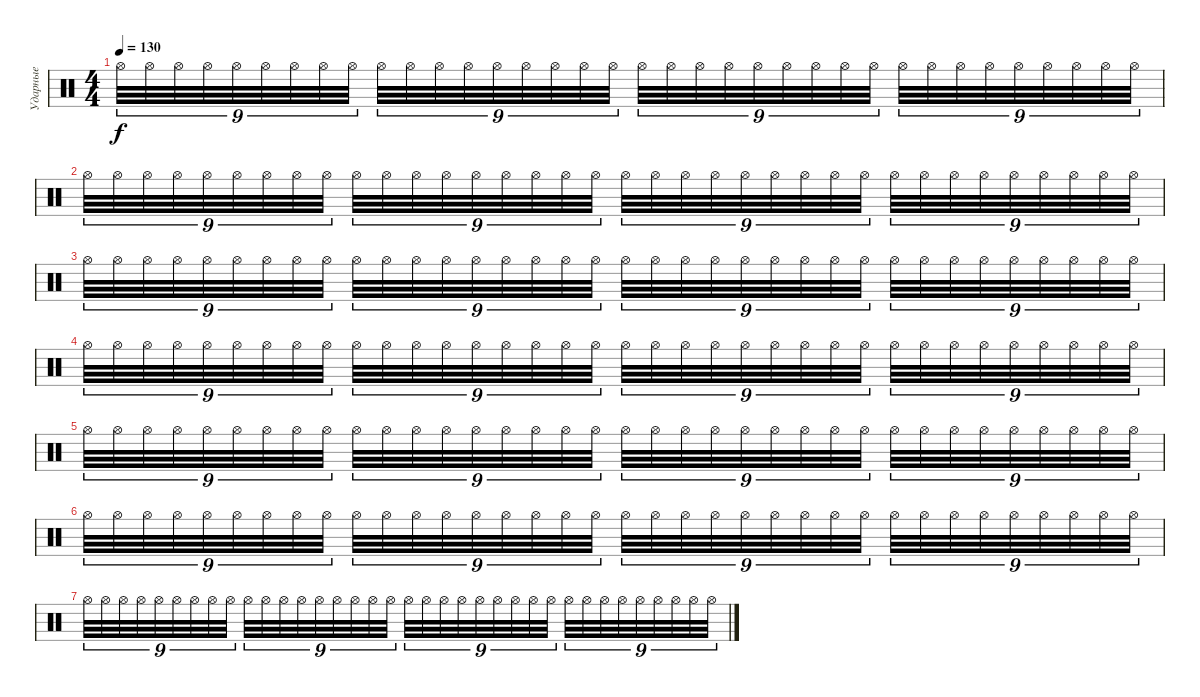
\track ("Ударные" "Ударные") {instrument percussion}
\staff {score}
\articulation defaults
\ts (4 4)
\tempo 130
\clef neutral
\ks c "Hi-Hat (open)".32{tu (9 8) dy f volume 7} "Hi-Hat (open)".32{tu (9 8)} "Hi-Hat (open)".32{tu (9 8)} "Hi-Hat (open)".32{tu (9 8)} "Hi-Hat (open)".32{tu (9 8)} "Hi-Hat (open)".32{tu (9 8)} "Hi-Hat (open)".32{tu (9 8)} "Hi-Hat (open)".32{tu (9 8)} "Hi-Hat (open)".32{tu (9 8)} "Hi-Hat (open)".32{tu (9 8)} "Hi-Hat (open)".32{tu (9 8)} "Hi-Hat (open)".32{tu (9 8)} "Hi-Hat (open)".32{tu (9 8)} "Hi-Hat (open)".32{tu (9 8)} "Hi-Hat (open)".32{tu (9 8)} "Hi-Hat (open)".32{tu (9 8)} "Hi-Hat (open)".32{tu (9 8)} "Hi-Hat (open)".32{tu (9 8)} "Hi-Hat (open)".32{tu (9 8) volume 3} "Hi-Hat (open)".32{tu (9 8)} "Hi-Hat (open)".32{tu (9 8)} "Hi-Hat (open)".32{tu (9 8)} "Hi-Hat (open)".32{tu (9 8)} "Hi-Hat (open)".32{tu (9 8)} "Hi-Hat (open)".32{tu (9 8)} "Hi-Hat (open)".32{tu (9 8)} "Hi-Hat (open)".32{tu (9 8)} "Hi-Hat (open)".32{tu (9 8)} "Hi-Hat (open)".32{tu (9 8)} "Hi-Hat (open)".32{tu (9 8)} "Hi-Hat (open)".32{tu (9 8)} "Hi-Hat (open)".32{tu (9 8)} "Hi-Hat (open)".32{tu (9 8)} "Hi-Hat (open)".32{tu (9 8)} "Hi-Hat (open)".32{tu (9 8)} "Hi-Hat (open)".32{tu (9 8)}
|
"Hi-Hat (open)".32{tu (9 8) volume 8} "Hi-Hat (open)".32{tu (9 8)} "Hi-Hat (open)".32{tu (9 8)} "Hi-Hat (open)".32{tu (9 8)} "Hi-Hat (open)".32{tu (9 8)} "Hi-Hat (open)".32{tu (9 8)} "Hi-Hat (open)".32{tu (9 8)} "Hi-Hat (open)".32{tu (9 8)} "Hi-Hat (open)".32{tu (9 8)} "Hi-Hat (open)".32{tu (9 8)} "Hi-Hat (open)".32{tu (9 8)} "Hi-Hat (open)".32{tu (9 8)} "Hi-Hat (open)".32{tu (9 8)} "Hi-Hat (open)".32{tu (9 8)} "Hi-Hat (open)".32{tu (9 8)} "Hi-Hat (open)".32{tu (9 8)} "Hi-Hat (open)".32{tu (9 8)} "Hi-Hat (open)".32{tu (9 8)} "Hi-Hat (open)".32{tu (9 8)} "Hi-Hat (open)".32{tu (9 8)} "Hi-Hat (open)".32{tu (9 8)} "Hi-Hat (open)".32{tu (9 8)} "Hi-Hat (open)".32{tu (9 8)} "Hi-Hat (open)".32{tu (9 8)} "Hi-Hat (open)".32{tu (9 8)} "Hi-Hat (open)".32{tu (9 8)} "Hi-Hat (open)".32{tu (9 8)} "Hi-Hat (open)".32{tu (9 8)} "Hi-Hat (open)".32{tu (9 8)} "Hi-Hat (open)".32{tu (9 8)} "Hi-Hat (open)".32{tu (9 8)} "Hi-Hat (open)".32{tu (9 8)} "Hi-Hat (open)".32{tu (9 8)} "Hi-Hat (open)".32{tu (9 8)} "Hi-Hat (open)".32{tu (9 8)} "Hi-Hat (open)".32{tu (9 8)} |
"Hi-Hat (open)".32{tu (9 8)} "Hi-Hat (open)".32{tu (9 8)} "Hi-Hat (open)".32{tu (9 8)} "Hi-Hat (open)".32{tu (9 8)} "Hi-Hat (open)".32{tu (9 8)} "Hi-Hat (open)".32{tu (9 8)} "Hi-Hat (open)".32{tu (9 8)} "Hi-Hat (open)".32{tu (9 8)} "Hi-Hat (open)".32{tu (9 8)} "Hi-Hat (open)".32{tu (9 8)} "Hi-Hat (open)".32{tu (9 8)} "Hi-Hat (open)".32{tu (9 8)} "Hi-Hat (open)".32{tu (9 8)} "Hi-Hat (open)".32{tu (9 8)} "Hi-Hat (open)".32{tu (9 8)} "Hi-Hat (open)".32{tu (9 8)} "Hi-Hat (open)".32{tu (9 8)} "Hi-Hat (open)".32{tu (9 8)} "Hi-Hat (open)".32{tu (9 8)} "Hi-Hat (open)".32{tu (9 8)} "Hi-Hat (open)".32{tu (9 8)} "Hi-Hat (open)".32{tu (9 8)} "Hi-Hat (open)".32{tu (9 8)} "Hi-Hat (open)".32{tu (9 8)} "Hi-Hat (open)".32{tu (9 8)} "Hi-Hat (open)".32{tu (9 8)} "Hi-Hat (open)".32{tu (9 8)} "Hi-Hat (open)".32{tu (9 8)} "Hi-Hat (open)".32{tu (9 8)} "Hi-Hat (open)".32{tu (9 8)} "Hi-Hat (open)".32{tu (9 8)} "Hi-Hat (open)".32{tu (9 8)} "Hi-Hat (open)".32{tu (9 8)} "Hi-Hat (open)".32{tu (9 8)} "Hi-Hat (open)".32{tu (9 8)} "Hi-Hat (open)".32{tu (9 8)} |
"Hi-Hat (open)".32{tu (9 8)} "Hi-Hat (open)".32{tu (9 8)} "Hi-Hat (open)".32{tu (9 8)} "Hi-Hat (open)".32{tu (9 8)} "Hi-Hat (open)".32{tu (9 8)} "Hi-Hat (open)".32{tu (9 8)} "Hi-Hat (open)".32{tu (9 8)} "Hi-Hat (open)".32{tu (9 8)} "Hi-Hat (open)".32{tu (9 8)} "Hi-Hat (open)".32{tu (9 8)} "Hi-Hat (open)".32{tu (9 8)} "Hi-Hat (open)".32{tu (9 8)} "Hi-Hat (open)".32{tu (9 8)} "Hi-Hat (open)".32{tu (9 8)} "Hi-Hat (open)".32{tu (9 8)} "Hi-Hat (open)".32{tu (9 8)} "Hi-Hat (open)".32{tu (9 8)} "Hi-Hat (open)".32{tu (9 8)} "Hi-Hat (open)".32{tu (9 8)} "Hi-Hat (open)".32{tu (9 8)} "Hi-Hat (open)".32{tu (9 8)} "Hi-Hat (open)".32{tu (9 8)} "Hi-Hat (open)".32{tu (9 8)} "Hi-Hat (open)".32{tu (9 8)} "Hi-Hat (open)".32{tu (9 8)} "Hi-Hat (open)".32{tu (9 8)} "Hi-Hat (open)".32{tu (9 8)} "Hi-Hat (open)".32{tu (9 8)} "Hi-Hat (open)".32{tu (9 8)} "Hi-Hat (open)".32{tu (9 8)} "Hi-Hat (open)".32{tu (9 8)} "Hi-Hat (open)".32{tu (9 8)} "Hi-Hat (open)".32{tu (9 8)} "Hi-Hat (open)".32{tu (9 8)} "Hi-Hat (open)".32{tu (9 8)} "Hi-Hat (open)".32{tu (9 8)} |
"Hi-Hat (open)".32{tu (9 8)} "Hi-Hat (open)".32{tu (9 8)} "Hi-Hat (open)".32{tu (9 8)} "Hi-Hat (open)".32{tu (9 8)} "Hi-Hat (open)".32{tu (9 8)} "Hi-Hat (open)".32{tu (9 8)} "Hi-Hat (open)".32{tu (9 8)} "Hi-Hat (open)".32{tu (9 8)} "Hi-Hat (open)".32{tu (9 8)} "Hi-Hat (open)".32{tu (9 8)} "Hi-Hat (open)".32{tu (9 8)} "Hi-Hat (open)".32{tu (9 8)} "Hi-Hat (open)".32{tu (9 8)} "Hi-Hat (open)".32{tu (9 8)} "Hi-Hat (open)".32{tu (9 8)} "Hi-Hat (open)".32{tu (9 8)} "Hi-Hat (open)".32{tu (9 8)} "Hi-Hat (open)".32{tu (9 8)} "Hi-Hat (open)".32{tu (9 8)} "Hi-Hat (open)".32{tu (9 8)} "Hi-Hat (open)".32{tu (9 8)} "Hi-Hat (open)".32{tu (9 8)} "Hi-Hat (open)".32{tu (9 8)} "Hi-Hat (open)".32{tu (9 8)} "Hi-Hat (open)".32{tu (9 8)} "Hi-Hat (open)".32{tu (9 8)} "Hi-Hat (open)".32{tu (9 8)} "Hi-Hat (open)".32{tu (9 8)} "Hi-Hat (open)".32{tu (9 8)} "Hi-Hat (open)".32{tu (9 8)} "Hi-Hat (open)".32{tu (9 8)} "Hi-Hat (open)".32{tu (9 8)} "Hi-Hat (open)".32{tu (9 8)} "Hi-Hat (open)".32{tu (9 8)} "Hi-Hat (open)".32{tu (9 8)} "Hi-Hat (open)".32{tu (9 8)} |
"Hi-Hat (open)".32{tu (9 8)} "Hi-Hat (open)".32{tu (9 8)} "Hi-Hat (open)".32{tu (9 8)} "Hi-Hat (open)".32{tu (9 8)} "Hi-Hat (open)".32{tu (9 8)} "Hi-Hat (open)".32{tu (9 8)} "Hi-Hat (open)".32{tu (9 8)} "Hi-Hat (open)".32{tu (9 8)} "Hi-Hat (open)".32{tu (9 8)} "Hi-Hat (open)".32{tu (9 8)} "Hi-Hat (open)".32{tu (9 8)} "Hi-Hat (open)".32{tu (9 8)} "Hi-Hat (open)".32{tu (9 8)} "Hi-Hat (open)".32{tu (9 8)} "Hi-Hat (open)".32{tu (9 8)} "Hi-Hat (open)".32{tu (9 8)} "Hi-Hat (open)".32{tu (9 8)} "Hi-Hat (open)".32{tu (9 8)} "Hi-Hat (open)".32{tu (9 8)} "Hi-Hat (open)".32{tu (9 8)} "Hi-Hat (open)".32{tu (9 8)} "Hi-Hat (open)".32{tu (9 8)} "Hi-Hat (open)".32{tu (9 8)} "Hi-Hat (open)".32{tu (9 8)} "Hi-Hat (open)".32{tu (9 8)} "Hi-Hat (open)".32{tu (9 8)} "Hi-Hat (open)".32{tu (9 8)} "Hi-Hat (open)".32{tu (9 8)} "Hi-Hat (open)".32{tu (9 8)} "Hi-Hat (open)".32{tu (9 8)} "Hi-Hat (open)".32{tu (9 8)} "Hi-Hat (open)".32{tu (9 8)} "Hi-Hat (open)".32{tu (9 8)} "Hi-Hat (open)".32{tu (9 8)} "Hi-Hat (open)".32{tu (9 8)} "Hi-Hat (open)".32{tu (9 8)} |
"Hi-Hat (open)".32{tu (9 8)} "Hi-Hat (open)".32{tu (9 8)} "Hi-Hat (open)".32{tu (9 8)} "Hi-Hat (open)".32{tu (9 8)} "Hi-Hat (open)".32{tu (9 8)} "Hi-Hat (open)".32{tu (9 8)} "Hi-Hat (open)".32{tu (9 8)} "Hi-Hat (open)".32{tu (9 8)} "Hi-Hat (open)".32{tu (9 8)} "Hi-Hat (open)".32{tu (9 8)} "Hi-Hat (open)".32{tu (9 8)} "Hi-Hat (open)".32{tu (9 8)} "Hi-Hat (open)".32{tu (9 8)} "Hi-Hat (open)".32{tu (9 8)} "Hi-Hat (open)".32{tu (9 8)} "Hi-Hat (open)".32{tu (9 8)} "Hi-Hat (open)".32{tu (9 8)} "Hi-Hat (open)".32{tu (9 8)} "Hi-Hat (open)".32{tu (9 8)} "Hi-Hat (open)".32{tu (9 8)} "Hi-Hat (open)".32{tu (9 8)} "Hi-Hat (open)".32{tu (9 8)} "Hi-Hat (open)".32{tu (9 8)} "Hi-Hat (open)".32{tu (9 8)} "Hi-Hat (open)".32{tu (9 8)} "Hi-Hat (open)".32{tu (9 8)} "Hi-Hat (open)".32{tu (9 8)} "Hi-Hat (open)".32{tu (9 8)} "Hi-Hat (open)".32{tu (9 8)} "Hi-Hat (open)".32{tu (9 8)} "Hi-Hat (open)".32{tu (9 8)} "Hi-Hat (open)".32{tu (9 8)} "Hi-Hat (open)".32{tu (9 8)} "Hi-Hat (open)".32{tu (9 8)} "Hi-Hat (open)".32{tu (9 8)} "Hi-Hat (open)".32{tu (9 8)}
